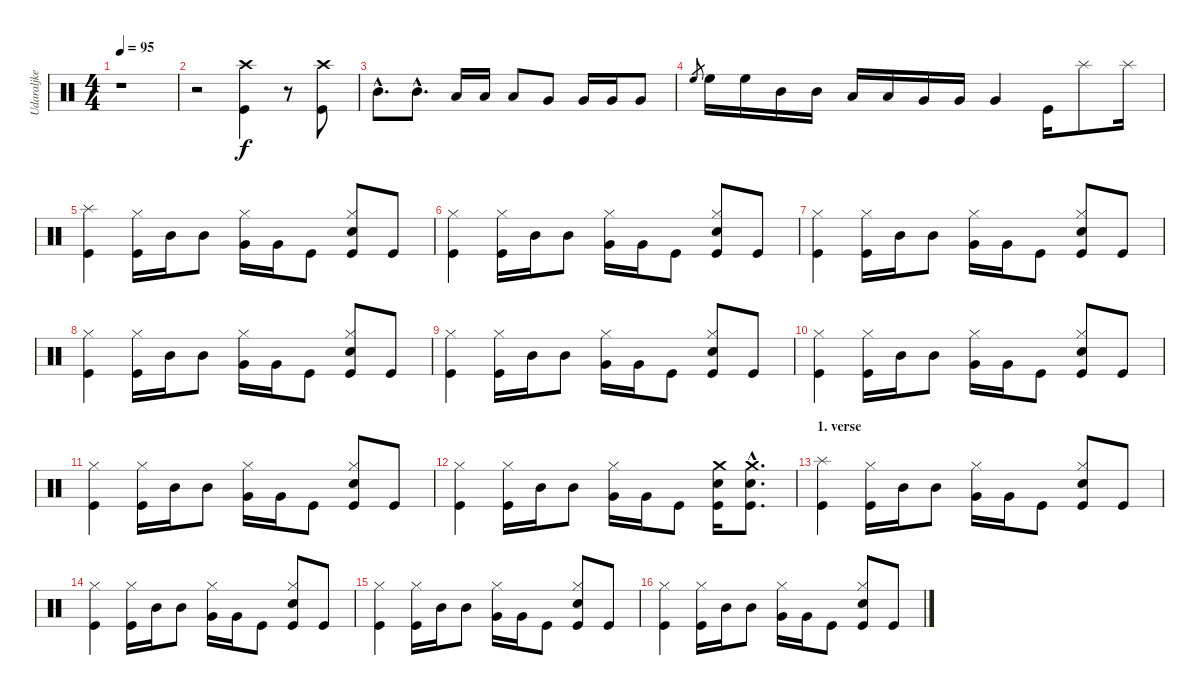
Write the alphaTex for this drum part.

\track ("Udaraljke" "Udaraljke") {instrument percussion}
\staff {score}
\articulation defaults
\ts (4 4)
\tempo 95
\clef neutral
\ks c
r.1{dy f} |
r.2 ("Crash high (hit)" "Kick (hit)").4{balance 10} r.8 ("Crash high (hit)" "Kick (hit)").8 |
"Mid Tom (hit)"{hac}.8{d} "Mid Tom (hit)"{hac}.8{d} "Low Tom (hit)".16 "Low Tom (hit)".16 "Low Tom (hit)".8 "Very Low Tom (hit)".8 "Very Low Tom (hit)".16 "Very Low Tom (hit)".16 "Very Low Tom (hit)".8 |
"High Floor Tom (hit)".8{gr} "High Floor Tom (hit)".16 "High Floor Tom (hit)".16 "Mid Tom (hit)".16 "Mid Tom (hit)".16 "Low Tom (hit)".16 "Low Tom (hit)".16 "Very Low Tom (hit)".16 "Very Low Tom (hit)".16 "Very Low Tom (hit)".4 "Kick (hit)".16 "Splash (hit)".8 "Splash (hit)".16 |
("Splash (hit)" "Kick (hit)").4 ("Hi-Hat (closed)" "Kick (hit)").16 "Mid Tom (hit)".16 "Mid Tom (hit)".8 ("Hi-Hat (closed)" "Very Low Tom (hit)").16 "Very Low Tom (hit)".16 "Kick (hit)".8 ("Hi-Hat (closed)" "Snare (hit) 2" "Kick (hit)").8 "Kick (hit)".8 |
("Hi-Hat (closed)" "Kick (hit)").4 ("Hi-Hat (closed)" "Kick (hit)").16 "Mid Tom (hit)".16 "Mid Tom (hit)".8 ("Hi-Hat (closed)" "Very Low Tom (hit)").16 "Very Low Tom (hit)".16 "Kick (hit)".8 ("Hi-Hat (closed)" "Snare (hit) 2" "Kick (hit)").8 "Kick (hit)".8 |
("Hi-Hat (closed)" "Kick (hit)").4 ("Hi-Hat (closed)" "Kick (hit)").16 "Mid Tom (hit)".16 "Mid Tom (hit)".8 ("Hi-Hat (closed)" "Very Low Tom (hit)").16 "Very Low Tom (hit)".16 "Kick (hit)".8 ("Hi-Hat (closed)" "Snare (hit) 2" "Kick (hit)").8 "Kick (hit)".8 |
("Hi-Hat (closed)" "Kick (hit)").4 ("Hi-Hat (closed)" "Kick (hit)").16 "Mid Tom (hit)".16 "Mid Tom (hit)".8 ("Hi-Hat (closed)" "Very Low Tom (hit)").16 "Very Low Tom (hit)".16 "Kick (hit)".8 ("Hi-Hat (closed)" "Snare (hit) 2" "Kick (hit)").8 "Kick (hit)".8 |
("Hi-Hat (closed)" "Kick (hit)").4 ("Hi-Hat (closed)" "Kick (hit)").16 "Mid Tom (hit)".16 "Mid Tom (hit)".8 ("Hi-Hat (closed)" "Very Low Tom (hit)").16 "Very Low Tom (hit)".16 "Kick (hit)".8 ("Hi-Hat (closed)" "Snare (hit) 2" "Kick (hit)").8 "Kick (hit)".8 |
("Hi-Hat (closed)" "Kick (hit)").4 ("Hi-Hat (closed)" "Kick (hit)").16 "Mid Tom (hit)".16 "Mid Tom (hit)".8 ("Hi-Hat (closed)" "Very Low Tom (hit)").16 "Very Low Tom (hit)".16 "Kick (hit)".8 ("Hi-Hat (closed)" "Snare (hit) 2" "Kick (hit)").8 "Kick (hit)".8 |
("Hi-Hat (closed)" "Kick (hit)").4 ("Hi-Hat (closed)" "Kick (hit)").16 "Mid Tom (hit)".16 "Mid Tom (hit)".8 ("Hi-Hat (closed)" "Very Low Tom (hit)").16 "Very Low Tom (hit)".16 "Kick (hit)".8 ("Hi-Hat (closed)" "Snare (hit) 2" "Kick (hit)").8 "Kick (hit)".8 |
("Hi-Hat (closed)" "Kick (hit)").4 ("Hi-Hat (closed)" "Kick (hit)").16 "Mid Tom (hit)".16 "Mid Tom (hit)".8 ("Hi-Hat (closed)" "Very Low Tom (hit)").16 "Very Low Tom (hit)".16 "Kick (hit)".8 ("Crash medium (hit)" "Snare (hit) 2" "Kick (hit)").16 ("Crash medium (hit)"{hac} "Snare (hit) 2"{hac} "Kick (hit)"{hac}).8{d} |
\section ("" "1. verse")
("Splash (hit)" "Kick (hit)").4 ("Hi-Hat (closed)" "Kick (hit)").16 "Mid Tom (hit)".16 "Mid Tom (hit)".8 ("Hi-Hat (closed)" "Very Low Tom (hit)").16 "Very Low Tom (hit)".16 "Kick (hit)".8 ("Hi-Hat (closed)" "Snare (hit) 2" "Kick (hit)").8 "Kick (hit)".8 |
("Hi-Hat (closed)" "Kick (hit)").4 ("Hi-Hat (closed)" "Kick (hit)").16 "Mid Tom (hit)".16 "Mid Tom (hit)".8 ("Hi-Hat (closed)" "Very Low Tom (hit)").16 "Very Low Tom (hit)".16 "Kick (hit)".8 ("Hi-Hat (closed)" "Snare (hit) 2" "Kick (hit)").8 "Kick (hit)".8 |
("Hi-Hat (closed)" "Kick (hit)").4 ("Hi-Hat (closed)" "Kick (hit)").16 "Mid Tom (hit)".16 "Mid Tom (hit)".8 ("Hi-Hat (closed)" "Very Low Tom (hit)").16 "Very Low Tom (hit)".16 "Kick (hit)".8 ("Hi-Hat (closed)" "Snare (hit) 2" "Kick (hit)").8 "Kick (hit)".8 |
("Hi-Hat (closed)" "Kick (hit)").4 ("Hi-Hat (closed)" "Kick (hit)").16 "Mid Tom (hit)".16 "Mid Tom (hit)".8 ("Hi-Hat (closed)" "Very Low Tom (hit)").16 "Very Low Tom (hit)".16 "Kick (hit)".8 ("Hi-Hat (closed)" "Snare (hit) 2" "Kick (hit)").8 "Kick (hit)".8
